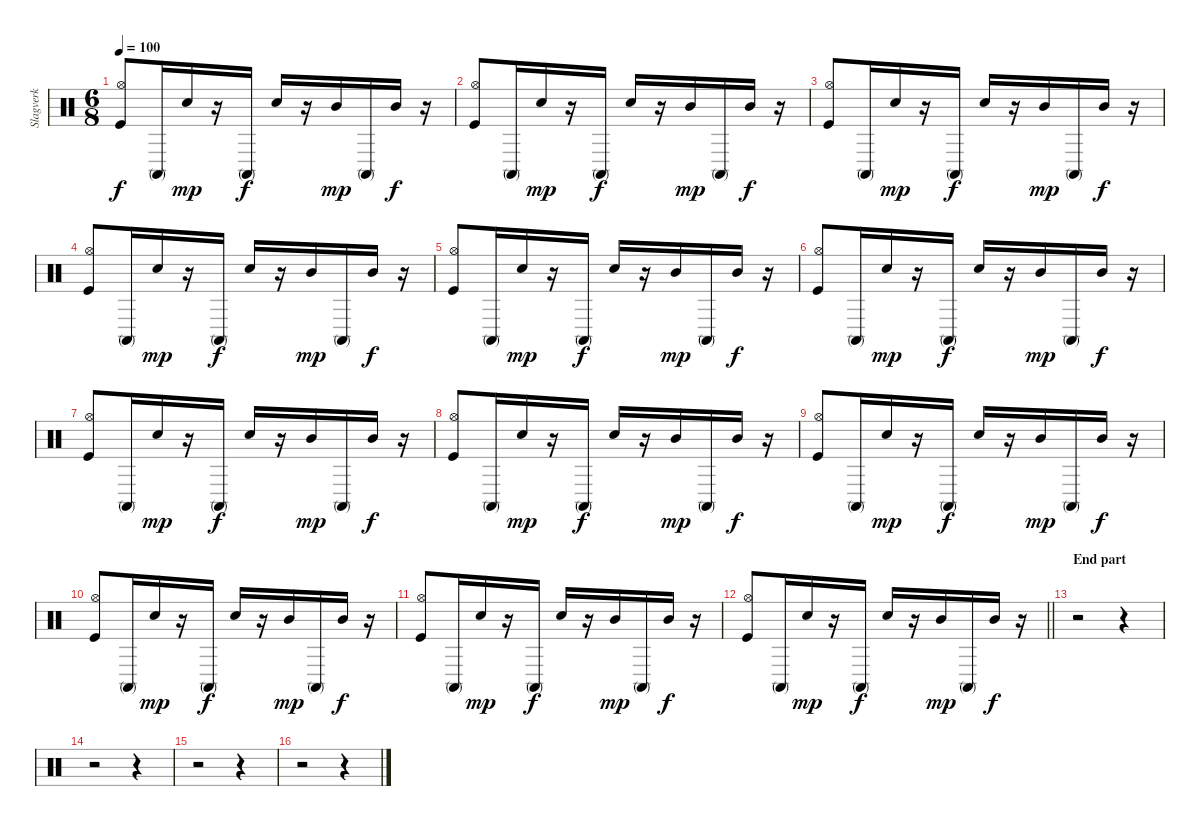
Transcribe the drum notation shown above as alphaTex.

\track ("Slagverk" "Slagverk") {instrument percussion}
\staff {score}
\articulation defaults
\ts (6 8)
\tempo 100
\clef neutral
\ks c
("Hi-Hat (open)" "Kick (hit)").8{dy f} "Conga high (mute)".16 "Snare (hit) 2".16{dy mp} r.16 "Conga high (mute)".16{dy f} "Snare (hit) 2".16 r.16 "Mid Tom (hit)".16{dy mp} "Conga high (mute)".16 "Mid Tom (hit)".16{dy f} r.16 |
("Hi-Hat (open)" "Kick (hit)").8 "Conga high (mute)".16 "Snare (hit) 2".16{dy mp} r.16 "Conga high (mute)".16{dy f} "Snare (hit) 2".16 r.16 "Mid Tom (hit)".16{dy mp} "Conga high (mute)".16 "Mid Tom (hit)".16{dy f} r.16 |
("Hi-Hat (open)" "Kick (hit)").8 "Conga high (mute)".16 "Snare (hit) 2".16{dy mp} r.16 "Conga high (mute)".16{dy f} "Snare (hit) 2".16 r.16 "Mid Tom (hit)".16{dy mp} "Conga high (mute)".16 "Mid Tom (hit)".16{dy f} r.16 |
("Hi-Hat (open)" "Kick (hit)").8 "Conga high (mute)".16 "Snare (hit) 2".16{dy mp} r.16 "Conga high (mute)".16{dy f} "Snare (hit) 2".16 r.16 "Mid Tom (hit)".16{dy mp} "Conga high (mute)".16 "Mid Tom (hit)".16{dy f} r.16 |
("Hi-Hat (open)" "Kick (hit)").8 "Conga high (mute)".16 "Snare (hit) 2".16{dy mp} r.16 "Conga high (mute)".16{dy f} "Snare (hit) 2".16 r.16 "Mid Tom (hit)".16{dy mp} "Conga high (mute)".16 "Mid Tom (hit)".16{dy f} r.16 |
("Hi-Hat (open)" "Kick (hit)").8 "Conga high (mute)".16 "Snare (hit) 2".16{dy mp} r.16 "Conga high (mute)".16{dy f} "Snare (hit) 2".16 r.16 "Mid Tom (hit)".16{dy mp} "Conga high (mute)".16 "Mid Tom (hit)".16{dy f} r.16 |
("Hi-Hat (open)" "Kick (hit)").8 "Conga high (mute)".16 "Snare (hit) 2".16{dy mp} r.16 "Conga high (mute)".16{dy f} "Snare (hit) 2".16 r.16 "Mid Tom (hit)".16{dy mp} "Conga high (mute)".16 "Mid Tom (hit)".16{dy f} r.16 |
("Hi-Hat (open)" "Kick (hit)").8 "Conga high (mute)".16 "Snare (hit) 2".16{dy mp} r.16 "Conga high (mute)".16{dy f} "Snare (hit) 2".16 r.16 "Mid Tom (hit)".16{dy mp} "Conga high (mute)".16 "Mid Tom (hit)".16{dy f} r.16 |
("Hi-Hat (open)" "Kick (hit)").8 "Conga high (mute)".16 "Snare (hit) 2".16{dy mp} r.16 "Conga high (mute)".16{dy f} "Snare (hit) 2".16 r.16 "Mid Tom (hit)".16{dy mp} "Conga high (mute)".16 "Mid Tom (hit)".16{dy f} r.16 |
("Hi-Hat (open)" "Kick (hit)").8 "Conga high (mute)".16 "Snare (hit) 2".16{dy mp} r.16 "Conga high (mute)".16{dy f} "Snare (hit) 2".16 r.16 "Mid Tom (hit)".16{dy mp} "Conga high (mute)".16 "Mid Tom (hit)".16{dy f} r.16 |
("Hi-Hat (open)" "Kick (hit)").8 "Conga high (mute)".16 "Snare (hit) 2".16{dy mp} r.16 "Conga high (mute)".16{dy f} "Snare (hit) 2".16 r.16 "Mid Tom (hit)".16{dy mp} "Conga high (mute)".16 "Mid Tom (hit)".16{dy f} r.16 |
\barLineRight lightlight
("Hi-Hat (open)" "Kick (hit)").8 "Conga high (mute)".16 "Snare (hit) 2".16{dy mp} r.16 "Conga high (mute)".16{dy f} "Snare (hit) 2".16 r.16 "Mid Tom (hit)".16{dy mp} "Conga high (mute)".16 "Mid Tom (hit)".16{dy f} r.16 |
\section ("" "End part")
r.2 r.4 |
r.2 r.4 |
r.2 r.4 |
r.2 r.4
